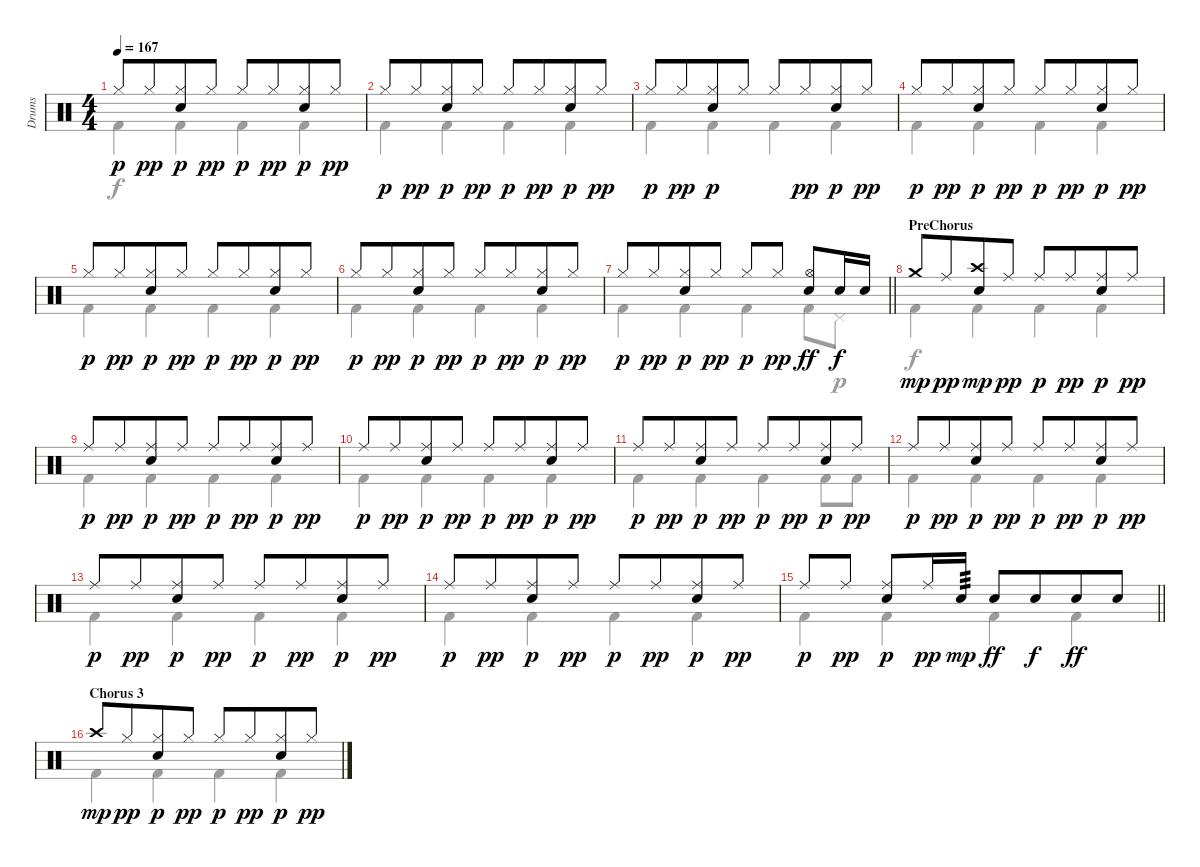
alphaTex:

\track ("Drums" "Drums") {instrument percussion}
\staff {score}
\articulation defaults
\voice
\ts (4 4)
\tempo 167
\clef neutral
\ks aminor "Hi-Hat (closed)".8{dy p} "Hi-Hat (closed)".8{dy pp beam merge}
("Hi-Hat (closed)" "Electric Snare (hit)").8{dy p} "Hi-Hat (closed)".8{dy pp} "Hi-Hat (closed)".8{dy p} "Hi-Hat (closed)".8{dy pp beam merge} ("Hi-Hat (closed)" "Electric Snare (hit)").8{dy p} "Hi-Hat (closed)".8{dy pp} |
"Hi-Hat (closed)".8{dy p} "Hi-Hat (closed)".8{dy pp beam merge} ("Hi-Hat (closed)" "Electric Snare (hit)").8{dy p} "Hi-Hat (closed)".8{dy pp} "Hi-Hat (closed)".8{dy p} "Hi-Hat (closed)".8{dy pp beam merge} ("Hi-Hat (closed)" "Electric Snare (hit)").8{dy p} "Hi-Hat (closed)".8{dy pp} |
"Hi-Hat (closed)".8{dy p} "Hi-Hat (closed)".8{dy pp beam merge} ("Hi-Hat (closed)" "Electric Snare (hit)").8{dy p} "Hi-Hat (closed)".8 "Hi-Hat (closed)".8 "Hi-Hat (closed)".8{dy pp beam merge} ("Hi-Hat (closed)" "Electric Snare (hit)").8{dy p} "Hi-Hat (closed)".8{dy pp} |
"Hi-Hat (closed)".8{dy p} "Hi-Hat (closed)".8{dy pp beam merge} ("Hi-Hat (closed)" "Electric Snare (hit)").8{dy p} "Hi-Hat (closed)".8{dy pp} "Hi-Hat (closed)".8{dy p} "Hi-Hat (closed)".8{dy pp beam merge} ("Hi-Hat (closed)" "Electric Snare (hit)").8{dy p} "Hi-Hat (closed)".8{dy pp} |
"Hi-Hat (closed)".8{dy p} "Hi-Hat (closed)".8{dy pp beam merge} ("Hi-Hat (closed)" "Electric Snare (hit)").8{dy p} "Hi-Hat (closed)".8{dy pp} "Hi-Hat (closed)".8{dy p} "Hi-Hat (closed)".8{dy pp beam merge} ("Hi-Hat (closed)" "Electric Snare (hit)").8{dy p} "Hi-Hat (closed)".8{dy pp} |
"Hi-Hat (closed)".8{dy p} "Hi-Hat (closed)".8{dy pp beam merge} ("Hi-Hat (closed)" "Electric Snare (hit)").8{dy p} "Hi-Hat (closed)".8{dy pp} "Hi-Hat (closed)".8{dy p} "Hi-Hat (closed)".8{dy pp beam merge} ("Hi-Hat (closed)" "Electric Snare (hit)").8{dy p} "Hi-Hat (closed)".8{dy pp} |
\barLineRight lightlight "Hi-Hat (closed)".8{dy p} "Hi-Hat (closed)".8{dy pp beam merge}
("Hi-Hat (closed)" "Electric Snare (hit)").8{dy p} "Hi-Hat (closed)".8{dy pp} "Hi-Hat (closed)".8{dy p} "Hi-Hat (closed)".8{dy pp} ("Hi-Hat (open)" "Electric Snare (hit)").8{dy ff} "Electric Snare (hit)".16{dy f} "Electric Snare (hit)".16 |
\section ("" "PreChorus")
"Crash medium (hit)".8{dy mp} "Ride (middle)".8{dy pp beam merge} ("Electric Snare (hit)" "Crash high (hit)").8{dy mp} "Ride (middle)".8{dy pp} "Ride (middle)".8{dy p} "Ride (middle)".8{dy pp beam merge} ("Ride (middle)" "Electric Snare (hit)").8{dy p} "Ride (middle)".8{dy pp} |
"Ride (middle)".8{dy p} "Ride (middle)".8{dy pp beam merge} ("Ride (middle)" "Electric Snare (hit)").8{dy p} "Ride (middle)".8{dy pp} "Ride (middle)".8{dy p} "Ride (middle)".8{dy pp beam merge} ("Ride (middle)" "Electric Snare (hit)").8{dy p} "Ride (middle)".8{dy pp} |
"Ride (middle)".8{dy p} "Ride (middle)".8{dy pp beam merge} ("Ride (middle)" "Electric Snare (hit)").8{dy p} "Ride (middle)".8{dy pp} "Ride (middle)".8{dy p} "Ride (middle)".8{dy pp beam merge} ("Ride (middle)" "Electric Snare (hit)").8{dy p} "Ride (middle)".8{dy pp} |
"Ride (middle)".8{dy p} "Ride (middle)".8{dy pp beam merge} ("Ride (middle)" "Electric Snare (hit)").8{dy p} "Ride (middle)".8{dy pp} "Ride (middle)".8{dy p} "Ride (middle)".8{dy pp beam merge} ("Ride (middle)" "Electric Snare (hit)").8{dy p} "Ride (middle)".8{dy pp} |
"Ride (middle)".8{dy p} "Ride (middle)".8{dy pp beam merge} ("Ride (middle)" "Electric Snare (hit)").8{dy p} "Ride (middle)".8{dy pp} "Ride (middle)".8{dy p} "Ride (middle)".8{dy pp beam merge} ("Ride (middle)" "Electric Snare (hit)").8{dy p} "Ride (middle)".8{dy pp} |
"Ride (middle)".8{dy p} "Ride (middle)".8{dy pp beam merge} ("Ride (middle)" "Electric Snare (hit)").8{dy p} "Ride (middle)".8{dy pp} "Ride (middle)".8{dy p} "Ride (middle)".8{dy pp beam merge} ("Ride (middle)" "Electric Snare (hit)").8{dy p} "Ride (middle)".8{dy pp} |
"Ride (middle)".8{dy p} "Ride (middle)".8{dy pp beam merge} ("Ride (middle)" "Electric Snare (hit)").8{dy p} "Ride (middle)".8{dy pp} "Ride (middle)".8{dy p} "Ride (middle)".8{dy pp beam merge} ("Ride (middle)" "Electric Snare (hit)").8{dy p} "Ride (middle)".8{dy pp} |
\barLineRight lightlight "Ride (middle)".8{dy p} "Ride (middle)".8{dy pp}
("Ride (middle)" "Electric Snare (hit)").8{dy p} "Ride (middle)".16{dy pp} "Electric Snare (hit)".16{tp 3 dy mp} "Electric Snare (hit)".8{dy ff} "Electric Snare (hit)".8{dy f beam merge} "Electric Snare (hit)".8{dy ff} "Electric Snare (hit)".8 |
\section ("" "Chorus 3")
"Crash high (hit)".8{dy mp} "Hi-Hat (closed)".8{dy pp beam merge} ("Hi-Hat (closed)" "Electric Snare (hit)").8{dy p} "Hi-Hat (closed)".8{dy pp} "Hi-Hat (closed)".8{dy p} "Hi-Hat (closed)".8{dy pp beam merge} ("Hi-Hat (closed)" "Electric Snare (hit)").8{dy p} "Hi-Hat (closed)".8{dy pp}
\voice
\clef neutral
\ottava regular
\simile none
\ks aminor "Kick (hit) 2".4{dy f} "Kick (hit) 2".4 "Kick (hit) 2".4 "Kick (hit) 2".4
|
"Kick (hit) 2".4 "Kick (hit) 2".4 "Kick (hit) 2".4 "Kick (hit) 2".4 |
"Kick (hit) 2".4 "Kick (hit) 2".4 "Kick (hit) 2".4 "Kick (hit) 2".4 |
"Kick (hit) 2".4 "Kick (hit) 2".4 "Kick (hit) 2".4 "Kick (hit) 2".4 |
"Kick (hit) 2".4 "Kick (hit) 2".4 "Kick (hit) 2".4 "Kick (hit) 2".4 |
"Kick (hit) 2".4 "Kick (hit) 2".4 "Kick (hit) 2".4 "Kick (hit) 2".4 |
\barLineRight lightlight "Kick (hit) 2".4 "Kick (hit) 2".4 "Kick (hit) 2".4 "Kick (hit) 2".8 "Pedal Hi-Hat (hit)".8{dy p}
|
"Kick (hit) 2".4{dy f} "Kick (hit) 2".4 "Kick (hit) 2".4 "Kick (hit) 2".4 |
"Kick (hit) 2".4 "Kick (hit) 2".4 "Kick (hit) 2".4 "Kick (hit) 2".4 |
"Kick (hit) 2".4 "Kick (hit) 2".4 "Kick (hit) 2".4 "Kick (hit) 2".4 |
"Kick (hit) 2".4 "Kick (hit) 2".4 "Kick (hit) 2".4 "Kick (hit) 2".8 "Kick (hit) 2".8 |
"Kick (hit) 2".4 "Kick (hit) 2".4 "Kick (hit) 2".4 "Kick (hit) 2".4 |
"Kick (hit) 2".4 "Kick (hit) 2".4 "Kick (hit) 2".4 "Kick (hit) 2".4 |
"Kick (hit) 2".4 "Kick (hit) 2".4 "Kick (hit) 2".4 "Kick (hit) 2".4 |
\barLineRight lightlight "Kick (hit) 2".4 "Kick (hit) 2".4 "Kick (hit) 2".4 "Kick (hit) 2".4
|
"Kick (hit) 2".4 "Kick (hit) 2".4 "Kick (hit) 2".4 "Kick (hit) 2".4
